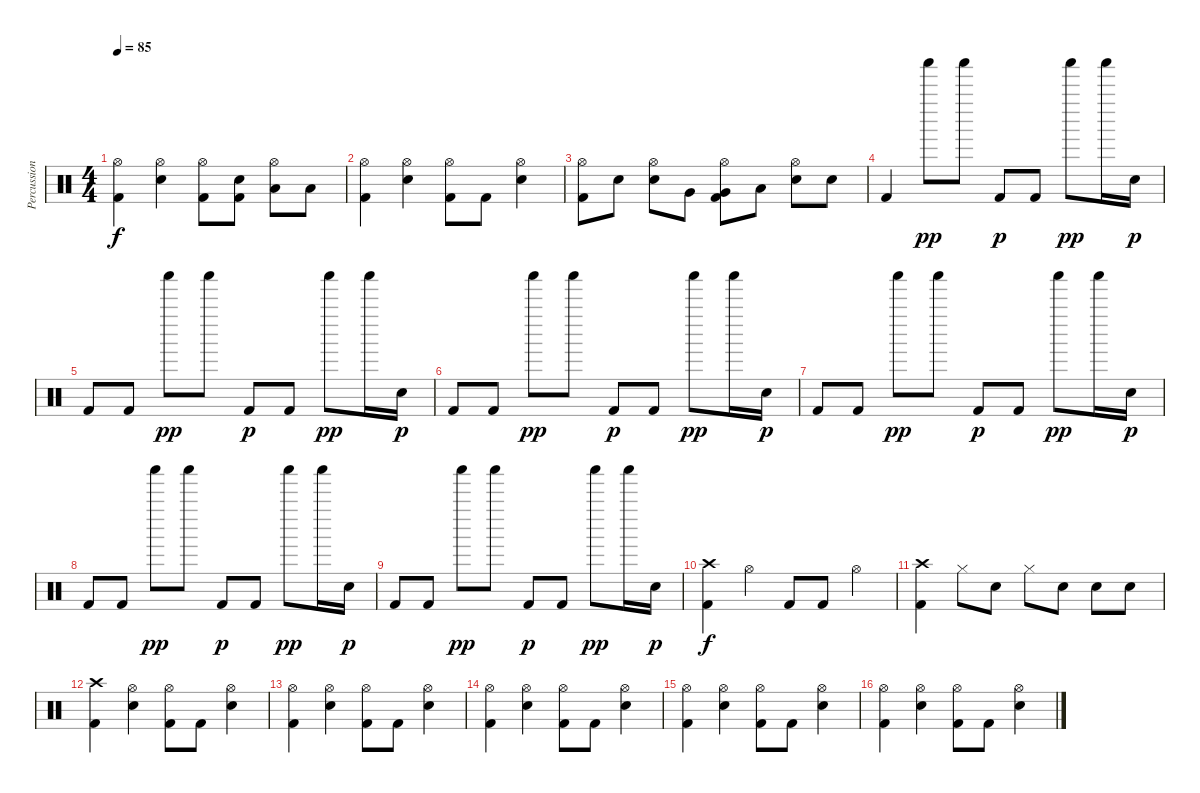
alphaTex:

\track ("Percussion" "Percussion") {instrument percussion}
\staff {score}
\articulation defaults
\ts (4 4)
\tempo 85
\clef neutral
\ks c
("Hi-Hat (open)" "Kick (hit) 2").4{dy f} ("Hi-Hat (open)" "Snare (hit) 2").4 ("Hi-Hat (open)" "Kick (hit) 2").8 ("Snare (hit) 2" "Kick (hit) 2").8 ("Hi-Hat (open)" "Low Tom (hit)").8 "Low Tom (hit)".8 |
("Hi-Hat (open)" "Kick (hit) 2").4 ("Hi-Hat (open)" "Snare (hit) 2").4 ("Hi-Hat (open)" "Kick (hit) 2").8 "Kick (hit) 2".8 ("Hi-Hat (open)" "Snare (hit) 2").4 |
("Hi-Hat (open)" "Kick (hit) 2").8 "Snare (hit) 2".8 ("Hi-Hat (open)" "Snare (hit) 2").8 "Very Low Tom (hit)".8 ("Hi-Hat (open)" "Very Low Tom (hit)" "Kick (hit) 2").8 "Low Tom (hit)".8 ("Hi-Hat (open)" "Snare (hit) 2").8 "Snare (hit) 2".8 |
"Kick (hit) 2".4 "Shaker (hit)".8{dy pp} "Shaker (hit)".8 "Kick (hit) 2".8{dy p} "Kick (hit) 2".8 "Shaker (hit)".8{dy pp} "Shaker (hit)".16 "Snare (hit) 2".16{dy p} |
"Kick (hit) 2".8 "Kick (hit) 2".8 "Shaker (hit)".8{dy pp} "Shaker (hit)".8 "Kick (hit) 2".8{dy p} "Kick (hit) 2".8 "Shaker (hit)".8{dy pp} "Shaker (hit)".16 "Snare (hit) 2".16{dy p} |
"Kick (hit) 2".8 "Kick (hit) 2".8 "Shaker (hit)".8{dy pp} "Shaker (hit)".8 "Kick (hit) 2".8{dy p} "Kick (hit) 2".8 "Shaker (hit)".8{dy pp} "Shaker (hit)".16 "Snare (hit) 2".16{dy p} |
"Kick (hit) 2".8 "Kick (hit) 2".8 "Shaker (hit)".8{dy pp} "Shaker (hit)".8 "Kick (hit) 2".8{dy p} "Kick (hit) 2".8 "Shaker (hit)".8{dy pp} "Shaker (hit)".16 "Snare (hit) 2".16{dy p} |
"Kick (hit) 2".8 "Kick (hit) 2".8 "Shaker (hit)".8{dy pp} "Shaker (hit)".8 "Kick (hit) 2".8{dy p} "Kick (hit) 2".8 "Shaker (hit)".8{dy pp} "Shaker (hit)".16 "Snare (hit) 2".16{dy p} |
"Kick (hit) 2".8 "Kick (hit) 2".8 "Shaker (hit)".8{dy pp} "Shaker (hit)".8 "Kick (hit) 2".8{dy p} "Kick (hit) 2".8 "Shaker (hit)".8{dy pp} "Shaker (hit)".16 "Snare (hit) 2".16{dy p} |
("Crash high (hit)" "Kick (hit) 2").4{dy f} "Hi-Hat (open)".4 "Kick (hit) 2".8 "Kick (hit) 2".8 "Hi-Hat (open)".4 |
("Crash high (hit)" "Kick (hit) 2").4 "Hi-Hat (closed)".8 "Snare (hit) 2".8 "Hi-Hat (closed)".8 "Snare (hit) 2".8 "Snare (hit) 2".8 "Snare (hit) 2".8 |
("Crash high (hit)" "Kick (hit) 2").4 ("Hi-Hat (open)" "Snare (hit) 2").4 ("Hi-Hat (open)" "Kick (hit) 2").8 "Kick (hit) 2".8 ("Hi-Hat (open)" "Snare (hit) 2").4 |
("Hi-Hat (open)" "Kick (hit) 2").4 ("Hi-Hat (open)" "Snare (hit) 2").4 ("Hi-Hat (open)" "Kick (hit) 2").8 "Kick (hit) 2".8 ("Hi-Hat (open)" "Snare (hit) 2").4 |
("Hi-Hat (open)" "Kick (hit) 2").4 ("Hi-Hat (open)" "Snare (hit) 2").4 ("Hi-Hat (open)" "Kick (hit) 2").8 "Kick (hit) 2".8 ("Hi-Hat (open)" "Snare (hit) 2").4 |
("Hi-Hat (open)" "Kick (hit) 2").4 ("Hi-Hat (open)" "Snare (hit) 2").4 ("Hi-Hat (open)" "Kick (hit) 2").8 "Kick (hit) 2".8 ("Hi-Hat (open)" "Snare (hit) 2").4 |
("Hi-Hat (open)" "Kick (hit) 2").4 ("Hi-Hat (open)" "Snare (hit) 2").4 ("Hi-Hat (open)" "Kick (hit) 2").8 "Kick (hit) 2".8 ("Hi-Hat (open)" "Snare (hit) 2").4
